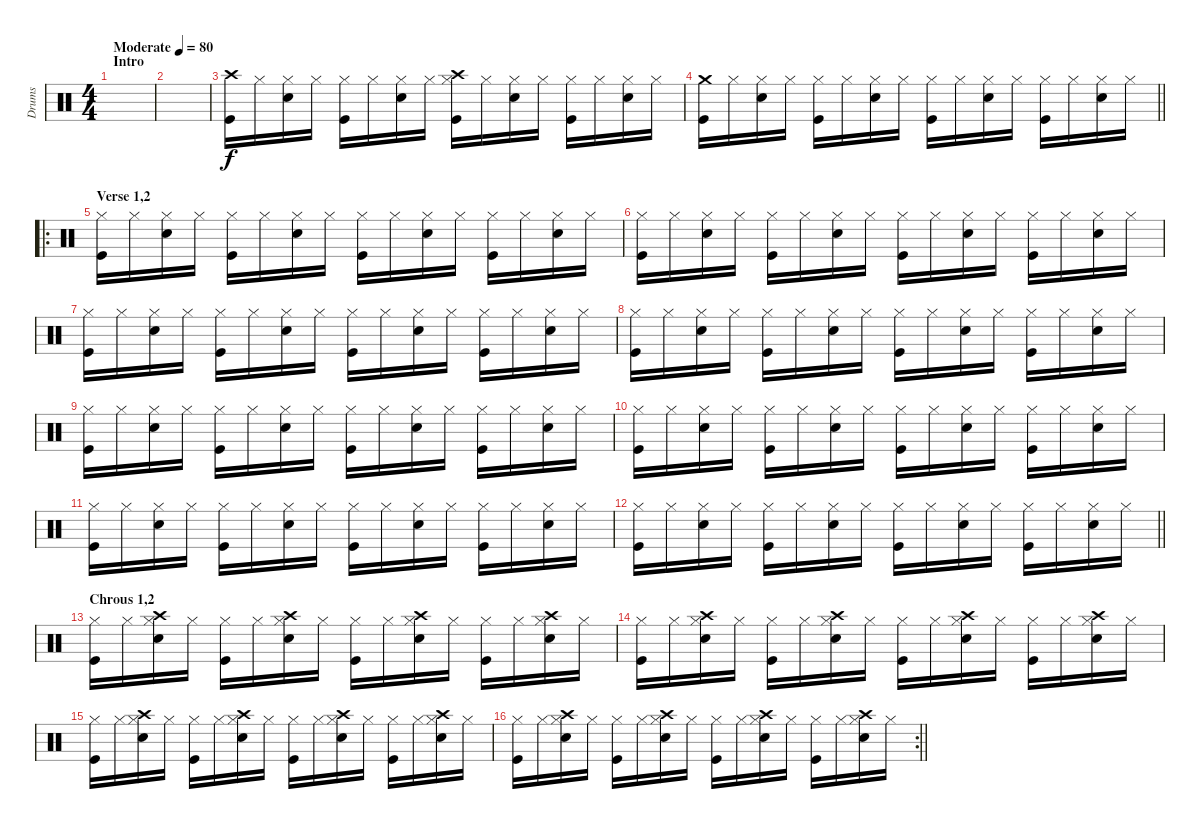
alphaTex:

\track ("Drums" "Drums") {instrument percussion}
\staff {score}
\articulation defaults
\ts (4 4)
\section ("" "Intro")
\tempo (80 "Moderate")
\clef neutral
\ks c
|
|
("Kick (hit)" "Crash high (hit)").16 "Hi-Hat (closed)".16 ("Hi-Hat (closed)" "Snare (hit) 2").16 "Hi-Hat (closed)".16 ("Hi-Hat (closed)" "Kick (hit)").16 "Hi-Hat (closed)".16 ("Hi-Hat (closed)" "Snare (hit) 2").16 "Hi-Hat (closed)".16 ("Hi-Hat (closed)" "Crash high (hit)" "Kick (hit)").16 "Hi-Hat (closed)".16 ("Hi-Hat (closed)" "Snare (hit) 2").16 "Hi-Hat (closed)".16 ("Hi-Hat (closed)" "Kick (hit)").16 "Hi-Hat (closed)".16 ("Hi-Hat (closed)" "Snare (hit) 2").16 "Hi-Hat (closed)".16 |
\barLineRight lightlight
("Kick (hit)" "Crash medium (hit)").16 "Hi-Hat (closed)".16 ("Hi-Hat (closed)" "Snare (hit) 2").16 "Hi-Hat (closed)".16 ("Hi-Hat (closed)" "Kick (hit)").16 "Hi-Hat (closed)".16 ("Hi-Hat (closed)" "Snare (hit) 2").16 "Hi-Hat (closed)".16 ("Hi-Hat (closed)" "Kick (hit)").16 "Hi-Hat (closed)".16 ("Hi-Hat (closed)" "Snare (hit) 2").16 "Hi-Hat (closed)".16 ("Hi-Hat (closed)" "Kick (hit)").16 "Hi-Hat (closed)".16 ("Hi-Hat (closed)" "Snare (hit) 2").16 "Hi-Hat (closed)".16 |
\ro
\section ("" "Verse 1,2")
("Kick (hit)" "Hi-Hat (closed)").16 "Hi-Hat (closed)".16 ("Hi-Hat (closed)" "Snare (hit) 2").16 "Hi-Hat (closed)".16 ("Hi-Hat (closed)" "Kick (hit)").16 "Hi-Hat (closed)".16 ("Hi-Hat (closed)" "Snare (hit) 2").16 "Hi-Hat (closed)".16 ("Hi-Hat (closed)" "Kick (hit)").16 "Hi-Hat (closed)".16 ("Hi-Hat (closed)" "Snare (hit) 2").16 "Hi-Hat (closed)".16 ("Hi-Hat (closed)" "Kick (hit)").16 "Hi-Hat (closed)".16 ("Hi-Hat (closed)" "Snare (hit) 2").16 "Hi-Hat (closed)".16 |
("Kick (hit)" "Hi-Hat (closed)").16 "Hi-Hat (closed)".16 ("Hi-Hat (closed)" "Snare (hit) 2").16 "Hi-Hat (closed)".16 ("Hi-Hat (closed)" "Kick (hit)").16 "Hi-Hat (closed)".16 ("Hi-Hat (closed)" "Snare (hit) 2").16 "Hi-Hat (closed)".16 ("Hi-Hat (closed)" "Kick (hit)").16 "Hi-Hat (closed)".16 ("Hi-Hat (closed)" "Snare (hit) 2").16 "Hi-Hat (closed)".16 ("Hi-Hat (closed)" "Kick (hit)").16 "Hi-Hat (closed)".16 ("Hi-Hat (closed)" "Snare (hit) 2").16 "Hi-Hat (closed)".16 |
("Kick (hit)" "Hi-Hat (closed)").16 "Hi-Hat (closed)".16 ("Hi-Hat (closed)" "Snare (hit) 2").16 "Hi-Hat (closed)".16 ("Hi-Hat (closed)" "Kick (hit)").16 "Hi-Hat (closed)".16 ("Hi-Hat (closed)" "Snare (hit) 2").16 "Hi-Hat (closed)".16 ("Hi-Hat (closed)" "Kick (hit)").16 "Hi-Hat (closed)".16 ("Hi-Hat (closed)" "Snare (hit) 2").16 "Hi-Hat (closed)".16 ("Hi-Hat (closed)" "Kick (hit)").16 "Hi-Hat (closed)".16 ("Hi-Hat (closed)" "Snare (hit) 2").16 "Hi-Hat (closed)".16 |
("Kick (hit)" "Hi-Hat (closed)").16 "Hi-Hat (closed)".16 ("Hi-Hat (closed)" "Snare (hit) 2").16 "Hi-Hat (closed)".16 ("Hi-Hat (closed)" "Kick (hit)").16 "Hi-Hat (closed)".16 ("Hi-Hat (closed)" "Snare (hit) 2").16 "Hi-Hat (closed)".16 ("Hi-Hat (closed)" "Kick (hit)").16 "Hi-Hat (closed)".16 ("Hi-Hat (closed)" "Snare (hit) 2").16 "Hi-Hat (closed)".16 ("Hi-Hat (closed)" "Kick (hit)").16 "Hi-Hat (closed)".16 ("Hi-Hat (closed)" "Snare (hit) 2").16 "Hi-Hat (closed)".16 |
("Kick (hit)" "Hi-Hat (closed)").16 "Hi-Hat (closed)".16 ("Hi-Hat (closed)" "Snare (hit) 2").16 "Hi-Hat (closed)".16 ("Hi-Hat (closed)" "Kick (hit)").16 "Hi-Hat (closed)".16 ("Hi-Hat (closed)" "Snare (hit) 2").16 "Hi-Hat (closed)".16 ("Hi-Hat (closed)" "Kick (hit)").16 "Hi-Hat (closed)".16 ("Hi-Hat (closed)" "Snare (hit) 2").16 "Hi-Hat (closed)".16 ("Hi-Hat (closed)" "Kick (hit)").16 "Hi-Hat (closed)".16 ("Hi-Hat (closed)" "Snare (hit) 2").16 "Hi-Hat (closed)".16 |
("Kick (hit)" "Hi-Hat (closed)").16 "Hi-Hat (closed)".16 ("Hi-Hat (closed)" "Snare (hit) 2").16 "Hi-Hat (closed)".16 ("Hi-Hat (closed)" "Kick (hit)").16 "Hi-Hat (closed)".16 ("Hi-Hat (closed)" "Snare (hit) 2").16 "Hi-Hat (closed)".16 ("Hi-Hat (closed)" "Kick (hit)").16 "Hi-Hat (closed)".16 ("Hi-Hat (closed)" "Snare (hit) 2").16 "Hi-Hat (closed)".16 ("Hi-Hat (closed)" "Kick (hit)").16 "Hi-Hat (closed)".16 ("Hi-Hat (closed)" "Snare (hit) 2").16 "Hi-Hat (closed)".16 |
("Kick (hit)" "Hi-Hat (closed)").16 "Hi-Hat (closed)".16 ("Hi-Hat (closed)" "Snare (hit) 2").16 "Hi-Hat (closed)".16 ("Hi-Hat (closed)" "Kick (hit)").16 "Hi-Hat (closed)".16 ("Hi-Hat (closed)" "Snare (hit) 2").16 "Hi-Hat (closed)".16 ("Hi-Hat (closed)" "Kick (hit)").16 "Hi-Hat (closed)".16 ("Hi-Hat (closed)" "Snare (hit) 2").16 "Hi-Hat (closed)".16 ("Hi-Hat (closed)" "Kick (hit)").16 "Hi-Hat (closed)".16 ("Hi-Hat (closed)" "Snare (hit) 2").16 "Hi-Hat (closed)".16 |
\barLineRight lightlight
("Kick (hit)" "Hi-Hat (closed)").16 "Hi-Hat (closed)".16 ("Hi-Hat (closed)" "Snare (hit) 2").16 "Hi-Hat (closed)".16 ("Hi-Hat (closed)" "Kick (hit)").16 "Hi-Hat (closed)".16 ("Hi-Hat (closed)" "Snare (hit) 2").16 "Hi-Hat (closed)".16 ("Hi-Hat (closed)" "Kick (hit)").16 "Hi-Hat (closed)".16 ("Hi-Hat (closed)" "Snare (hit) 2").16 "Hi-Hat (closed)".16 ("Hi-Hat (closed)" "Kick (hit)").16 "Hi-Hat (closed)".16 ("Hi-Hat (closed)" "Snare (hit) 2").16 "Hi-Hat (closed)".16 |
\section ("" "Chrous 1,2")
("Kick (hit)" "Hi-Hat (closed)").16 "Hi-Hat (closed)".16 ("Hi-Hat (closed)" "Snare (hit) 2" "Crash high (hit)").16 "Hi-Hat (closed)".16 ("Hi-Hat (closed)" "Kick (hit)").16 "Hi-Hat (closed)".16 ("Hi-Hat (closed)" "Snare (hit) 2" "Crash high (hit)").16 "Hi-Hat (closed)".16 ("Hi-Hat (closed)" "Kick (hit)").16 "Hi-Hat (closed)".16 ("Hi-Hat (closed)" "Snare (hit) 2" "Crash high (hit)").16 "Hi-Hat (closed)".16 ("Hi-Hat (closed)" "Kick (hit)").16 "Hi-Hat (closed)".16 ("Hi-Hat (closed)" "Snare (hit) 2" "Crash high (hit)").16 "Hi-Hat (closed)".16 |
("Kick (hit)" "Hi-Hat (closed)").16 "Hi-Hat (closed)".16 ("Hi-Hat (closed)" "Snare (hit) 2" "Crash high (hit)").16 "Hi-Hat (closed)".16 ("Hi-Hat (closed)" "Kick (hit)").16 "Hi-Hat (closed)".16 ("Hi-Hat (closed)" "Snare (hit) 2" "Crash high (hit)").16 "Hi-Hat (closed)".16 ("Hi-Hat (closed)" "Kick (hit)").16 "Hi-Hat (closed)".16 ("Hi-Hat (closed)" "Snare (hit) 2" "Crash high (hit)").16 "Hi-Hat (closed)".16 ("Hi-Hat (closed)" "Kick (hit)").16 "Hi-Hat (closed)".16 ("Hi-Hat (closed)" "Snare (hit) 2" "Crash high (hit)").16 "Hi-Hat (closed)".16 |
("Kick (hit)" "Hi-Hat (closed)").16 "Hi-Hat (closed)".16 ("Hi-Hat (closed)" "Snare (hit) 2" "Crash high (hit)").16 "Hi-Hat (closed)".16 ("Hi-Hat (closed)" "Kick (hit)").16 "Hi-Hat (closed)".16 ("Hi-Hat (closed)" "Snare (hit) 2" "Crash high (hit)").16 "Hi-Hat (closed)".16 ("Hi-Hat (closed)" "Kick (hit)").16 "Hi-Hat (closed)".16 ("Hi-Hat (closed)" "Snare (hit) 2" "Crash high (hit)").16 "Hi-Hat (closed)".16 ("Hi-Hat (closed)" "Kick (hit)").16 "Hi-Hat (closed)".16 ("Hi-Hat (closed)" "Snare (hit) 2" "Crash high (hit)").16 "Hi-Hat (closed)".16 |
\rc 2
\barLineRight lightlight
("Kick (hit)" "Hi-Hat (closed)").16 "Hi-Hat (closed)".16 ("Hi-Hat (closed)" "Snare (hit) 2" "Crash high (hit)").16 "Hi-Hat (closed)".16 ("Hi-Hat (closed)" "Kick (hit)").16 "Hi-Hat (closed)".16 ("Hi-Hat (closed)" "Snare (hit) 2" "Crash high (hit)").16 "Hi-Hat (closed)".16 ("Hi-Hat (closed)" "Kick (hit)").16 "Hi-Hat (closed)".16 ("Hi-Hat (closed)" "Snare (hit) 2" "Crash high (hit)").16 "Hi-Hat (closed)".16 ("Hi-Hat (closed)" "Kick (hit)").16 "Hi-Hat (closed)".16 ("Hi-Hat (closed)" "Snare (hit) 2" "Crash high (hit)").16 "Hi-Hat (closed)".16
